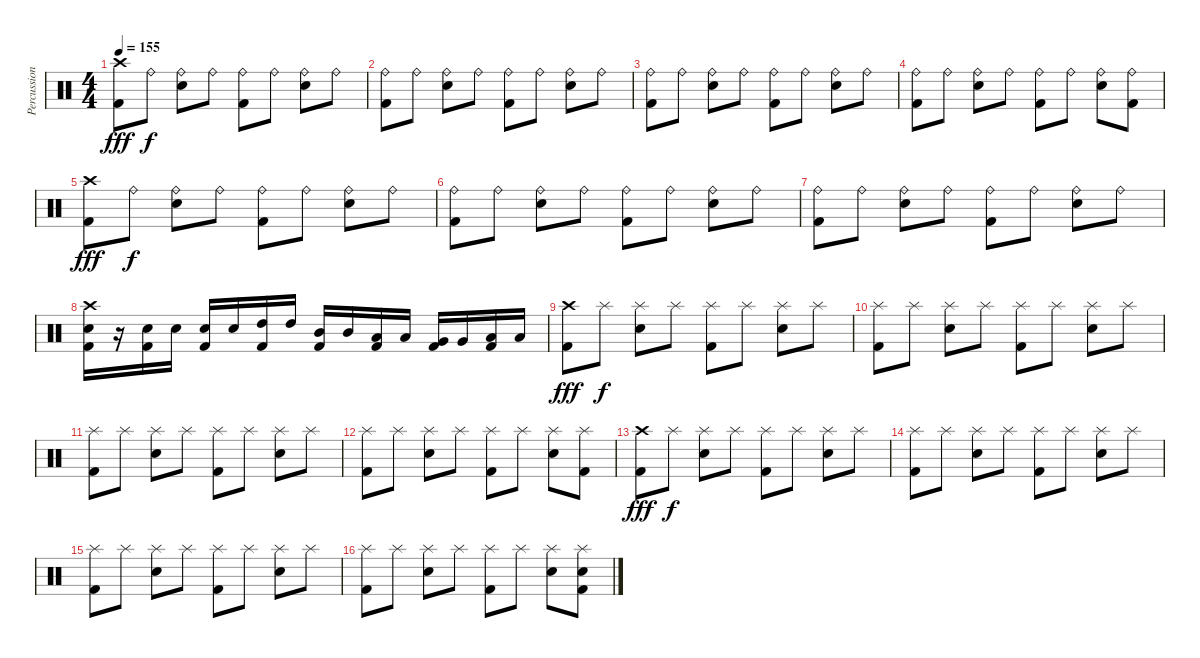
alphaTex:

\track ("Percussion" "Percussion") {instrument percussion}
\staff {score}
\articulation defaults
\ts (4 4)
\tempo 155
\clef neutral
\ks c
("Crash high (hit)" "Kick (hit) 2").8{dy fff} "Ride (bell)".8{dy f} ("Ride (bell)" "Electric Snare (hit)").8 "Ride (bell)".8 ("Ride (bell)" "Kick (hit) 2").8 "Ride (bell)".8 ("Ride (bell)" "Electric Snare (hit)").8 "Ride (bell)".8 |
("Ride (bell)" "Kick (hit) 2").8 "Ride (bell)".8 ("Ride (bell)" "Electric Snare (hit)").8 "Ride (bell)".8 ("Ride (bell)" "Kick (hit) 2").8 "Ride (bell)".8 ("Ride (bell)" "Electric Snare (hit)").8 "Ride (bell)".8 |
("Ride (bell)" "Kick (hit) 2").8 "Ride (bell)".8 ("Ride (bell)" "Electric Snare (hit)").8 "Ride (bell)".8 ("Ride (bell)" "Kick (hit) 2").8 "Ride (bell)".8 ("Ride (bell)" "Electric Snare (hit)").8 "Ride (bell)".8 |
("Ride (bell)" "Kick (hit) 2").8 "Ride (bell)".8 ("Ride (bell)" "Electric Snare (hit)").8 "Ride (bell)".8 ("Ride (bell)" "Kick (hit) 2").8 "Ride (bell)".8 ("Ride (bell)" "Electric Snare (hit)").8 ("Ride (bell)" "Kick (hit) 2").8 |
("Crash high (hit)" "Kick (hit) 2").8{dy fff} "Ride (bell)".8{dy f} ("Ride (bell)" "Electric Snare (hit)").8 "Ride (bell)".8 ("Ride (bell)" "Kick (hit) 2").8 "Ride (bell)".8 ("Ride (bell)" "Electric Snare (hit)").8 "Ride (bell)".8 |
("Ride (bell)" "Kick (hit) 2").8 "Ride (bell)".8 ("Ride (bell)" "Electric Snare (hit)").8 "Ride (bell)".8 ("Ride (bell)" "Kick (hit) 2").8 "Ride (bell)".8 ("Ride (bell)" "Electric Snare (hit)").8 "Ride (bell)".8 |
("Ride (bell)" "Kick (hit) 2").8 "Ride (bell)".8 ("Ride (bell)" "Electric Snare (hit)").8 "Ride (bell)".8 ("Ride (bell)" "Kick (hit) 2").8 "Ride (bell)".8 ("Ride (bell)" "Electric Snare (hit)").8 "Ride (bell)".8 |
("Crash high (hit)" "Electric Snare (hit)" "Kick (hit) 2").16 r.16 ("Electric Snare (hit)" "Kick (hit) 2").16 "Electric Snare (hit)".16 ("Electric Snare (hit)" "Kick (hit) 2").16 "Electric Snare (hit)".16 ("High Tom (hit)" "Kick (hit) 2").16 "High Tom (hit)".16 ("Mid Tom (hit)" "Kick (hit) 2").16 "Mid Tom (hit)".16 ("Low Tom (hit)" "Kick (hit) 2").16 "Low Tom (hit)".16 ("Very Low Tom (hit)" "Kick (hit) 2").16 "Very Low Tom (hit)".16 ("Low Floor Tom (hit)" "Kick (hit) 2").16 "Low Floor Tom (hit)".16 |
("Crash high (hit)" "Kick (hit) 2").8{dy fff} "Splash (hit)".8{dy f} ("Splash (hit)" "Electric Snare (hit)").8 "Splash (hit)".8 ("Splash (hit)" "Kick (hit) 2").8 "Splash (hit)".8 ("Splash (hit)" "Electric Snare (hit)").8 "Splash (hit)".8 |
("Splash (hit)" "Kick (hit) 2").8 "Splash (hit)".8 ("Splash (hit)" "Electric Snare (hit)").8 "Splash (hit)".8 ("Splash (hit)" "Kick (hit) 2").8 "Splash (hit)".8 ("Splash (hit)" "Electric Snare (hit)").8 "Splash (hit)".8 |
("Splash (hit)" "Kick (hit) 2").8 "Splash (hit)".8 ("Splash (hit)" "Electric Snare (hit)").8 "Splash (hit)".8 ("Splash (hit)" "Kick (hit) 2").8 "Splash (hit)".8 ("Splash (hit)" "Electric Snare (hit)").8 "Splash (hit)".8 |
("Splash (hit)" "Kick (hit) 2").8 "Splash (hit)".8 ("Splash (hit)" "Electric Snare (hit)").8 "Splash (hit)".8 ("Splash (hit)" "Kick (hit) 2").8 "Splash (hit)".8 ("Splash (hit)" "Electric Snare (hit)").8 ("Splash (hit)" "Kick (hit) 2").8 |
("Crash high (hit)" "Kick (hit) 2").8{dy fff} "Splash (hit)".8{dy f} ("Splash (hit)" "Electric Snare (hit)").8 "Splash (hit)".8 ("Splash (hit)" "Kick (hit) 2").8 "Splash (hit)".8 ("Splash (hit)" "Electric Snare (hit)").8 "Splash (hit)".8 |
("Splash (hit)" "Kick (hit) 2").8 "Splash (hit)".8 ("Splash (hit)" "Electric Snare (hit)").8 "Splash (hit)".8 ("Splash (hit)" "Kick (hit) 2").8 "Splash (hit)".8 ("Splash (hit)" "Electric Snare (hit)").8 "Splash (hit)".8 |
("Splash (hit)" "Kick (hit) 2").8 "Splash (hit)".8 ("Splash (hit)" "Electric Snare (hit)").8 "Splash (hit)".8 ("Splash (hit)" "Kick (hit) 2").8 "Splash (hit)".8 ("Splash (hit)" "Electric Snare (hit)").8 "Splash (hit)".8 |
("Splash (hit)" "Kick (hit) 2").8 "Splash (hit)".8 ("Splash (hit)" "Electric Snare (hit)").8 "Splash (hit)".8 ("Splash (hit)" "Kick (hit) 2").8 "Splash (hit)".8 ("Splash (hit)" "Electric Snare (hit)").8 ("Splash (hit)" "Electric Snare (hit)" "Kick (hit) 2").8
